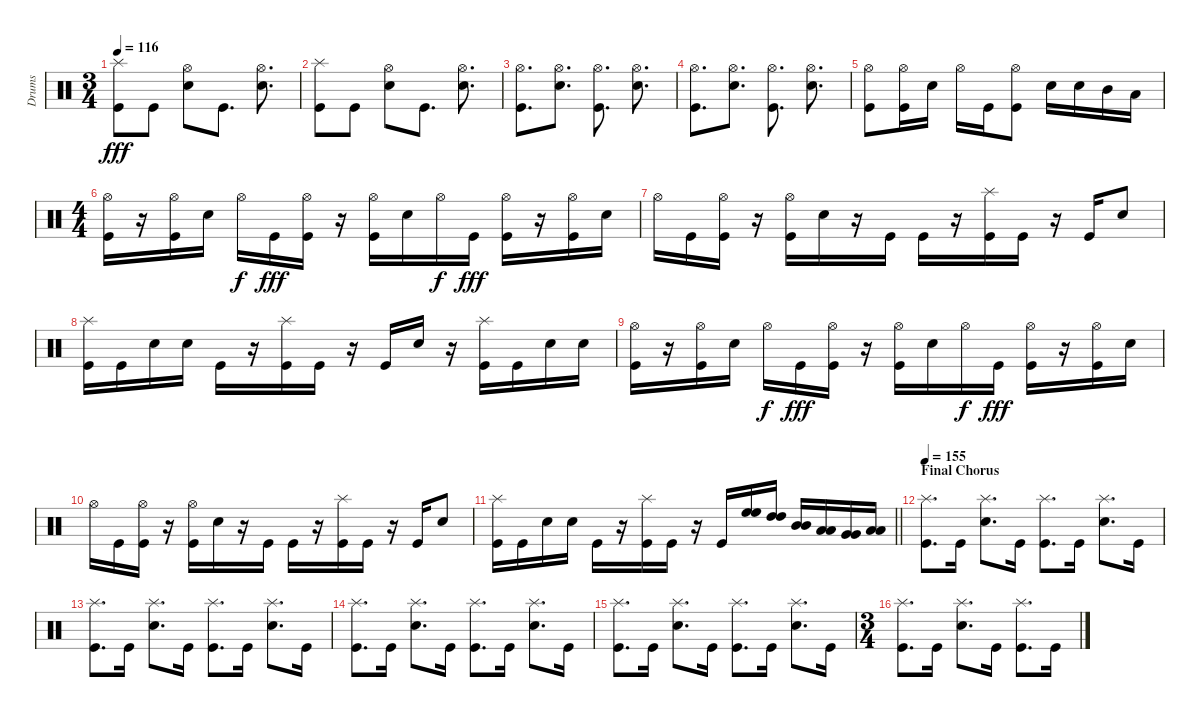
\track ("Drums" "Drums") {instrument percussion}
\staff {score}
\articulation defaults
\ts (3 4)
\tempo 116
\clef neutral
\ks c
("Splash (hit)" "Kick (hit)").8{dy fff} "Kick (hit)".8 ("Hi-Hat (open)" "Electric Snare (hit)").8 "Kick (hit)".8{d} ("Hi-Hat (open)" "Electric Snare (hit)").8{d} |
("Splash (hit)" "Kick (hit)").8 "Kick (hit)".8 ("Hi-Hat (open)" "Electric Snare (hit)").8 "Kick (hit)".8{d} ("Hi-Hat (open)" "Electric Snare (hit)").8{d} |
("Hi-Hat (open)" "Kick (hit)").8{d} ("Hi-Hat (open)" "Electric Snare (hit)").8{d} ("Hi-Hat (open)" "Kick (hit)").8{d} ("Hi-Hat (open)" "Electric Snare (hit)").8{d} |
("Hi-Hat (open)" "Kick (hit)").8{d} ("Hi-Hat (open)" "Electric Snare (hit)").8{d} ("Hi-Hat (open)" "Kick (hit)").8{d} ("Hi-Hat (open)" "Electric Snare (hit)").8{d} |
("Hi-Hat (open)" "Kick (hit)").8 ("Hi-Hat (open)" "Kick (hit)").16 "Electric Snare (hit)".16 "Hi-Hat (open)".16 "Kick (hit)".16 ("Hi-Hat (open)" "Kick (hit)").8 "Electric Snare (hit)".16 "Electric Snare (hit)".16 "Mid Tom (hit)".16 "Low Tom (hit)".16 |
\ts (4 4)
("Hi-Hat (open)" "Kick (hit)").16 r.16 ("Hi-Hat (open)" "Kick (hit)").16 "Electric Snare (hit)".16 "Hi-Hat (open)".16{dy f} "Kick (hit)".16{dy fff} ("Hi-Hat (open)" "Kick (hit)").16 r.16 ("Hi-Hat (open)" "Kick (hit)").16 "Electric Snare (hit)".16 "Hi-Hat (open)".16{dy f} "Kick (hit)".16{dy fff} ("Hi-Hat (open)" "Kick (hit)").16 r.16 ("Hi-Hat (open)" "Kick (hit)").16 "Electric Snare (hit)".16 |
"Hi-Hat (open)".16 "Kick (hit)".16 ("Hi-Hat (open)" "Kick (hit)").16 r.16 ("Hi-Hat (open)" "Kick (hit)").16 "Electric Snare (hit)".16 r.16 "Kick (hit)".16 "Kick (hit)".16 r.16 ("Splash (hit)" "Kick (hit)").16 "Kick (hit)".16 r.16 "Kick (hit)".16 "Electric Snare (hit)".8 |
("Splash (hit)" "Kick (hit)").16 "Kick (hit)".16 "Electric Snare (hit)".16 "Electric Snare (hit)".16 "Kick (hit)".16 r.16 ("Splash (hit)" "Kick (hit)").16 "Kick (hit)".16 r.16 "Kick (hit)".16 "Electric Snare (hit)".16 r.16 ("Splash (hit)" "Kick (hit)").16 "Kick (hit)".16 "Electric Snare (hit)".16 "Electric Snare (hit)".16 |
("Hi-Hat (open)" "Kick (hit)").16 r.16 ("Hi-Hat (open)" "Kick (hit)").16 "Electric Snare (hit)".16 "Hi-Hat (open)".16{dy f} "Kick (hit)".16{dy fff} ("Hi-Hat (open)" "Kick (hit)").16 r.16 ("Hi-Hat (open)" "Kick (hit)").16 "Electric Snare (hit)".16 "Hi-Hat (open)".16{dy f} "Kick (hit)".16{dy fff} ("Hi-Hat (open)" "Kick (hit)").16 r.16 ("Hi-Hat (open)" "Kick (hit)").16 "Electric Snare (hit)".16 |
"Hi-Hat (open)".16 "Kick (hit)".16 ("Hi-Hat (open)" "Kick (hit)").16 r.16 ("Hi-Hat (open)" "Kick (hit)").16 "Electric Snare (hit)".16 r.16 "Kick (hit)".16 "Kick (hit)".16 r.16 ("Splash (hit)" "Kick (hit)").16 "Kick (hit)".16 r.16 "Kick (hit)".16 "Electric Snare (hit)".8 |
\barLineRight lightlight
("Splash (hit)" "Kick (hit)").16 "Kick (hit)".16 "Electric Snare (hit)".16 "Electric Snare (hit)".16 "Kick (hit)".16 r.16 ("Splash (hit)" "Kick (hit)").16 "Kick (hit)".16 r.16 "Kick (hit)".16 ("High Floor Tom (hit)" "High Floor Tom (hit)").16 ("High Tom (hit)" "High Tom (hit)").16 ("Mid Tom (hit)" "Mid Tom (hit)").16 ("Low Tom (hit)" "Low Tom (hit)").16 ("Very Low Tom (hit)" "Very Low Tom (hit)").16 ("Low Floor Tom (hit)" "Low Floor Tom (hit)").16 |
\section ("" "Final Chorus")
\tempo 155
("Splash (hit)" "Kick (hit)").8{d} "Kick (hit)".16 ("Splash (hit)" "Electric Snare (hit)").8{d} "Kick (hit)".16 ("Splash (hit)" "Kick (hit)").8{d} "Kick (hit)".16 ("Splash (hit)" "Electric Snare (hit)").8{d} "Kick (hit)".16 |
("Splash (hit)" "Kick (hit)").8{d} "Kick (hit)".16 ("Splash (hit)" "Electric Snare (hit)").8{d} "Kick (hit)".16 ("Splash (hit)" "Kick (hit)").8{d} "Kick (hit)".16 ("Splash (hit)" "Electric Snare (hit)").8{d} "Kick (hit)".16 |
("Splash (hit)" "Kick (hit)").8{d} "Kick (hit)".16 ("Splash (hit)" "Electric Snare (hit)").8{d} "Kick (hit)".16 ("Splash (hit)" "Kick (hit)").8{d} "Kick (hit)".16 ("Splash (hit)" "Electric Snare (hit)").8{d} "Kick (hit)".16 |
("Splash (hit)" "Kick (hit)").8{d} "Kick (hit)".16 ("Splash (hit)" "Electric Snare (hit)").8{d} "Kick (hit)".16 ("Splash (hit)" "Kick (hit)").8{d} "Kick (hit)".16 ("Splash (hit)" "Electric Snare (hit)").8{d} "Kick (hit)".16 |
\ts (3 4)
("Splash (hit)" "Kick (hit)").8{d} "Kick (hit)".16 ("Splash (hit)" "Electric Snare (hit)").8{d} "Kick (hit)".16 ("Splash (hit)" "Kick (hit)").8{d} "Kick (hit)".16
